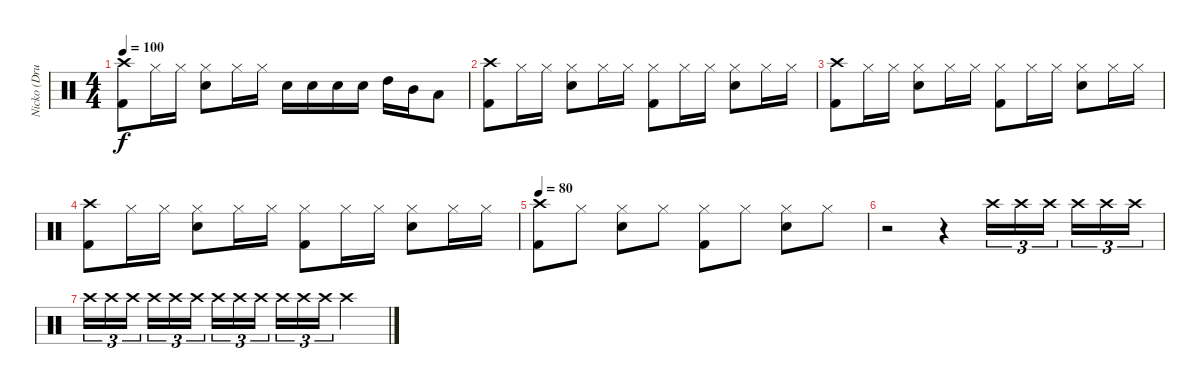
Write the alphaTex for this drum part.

\track ("Nicko (Drums)" "Nicko (Dru") {instrument percussion}
\staff {score}
\articulation defaults
\ts (4 4)
\tempo 100
\clef neutral
\ks c
("Crash high (hit)" "Kick (hit) 2").8{dy f} "Hi-Hat (closed)".16 "Hi-Hat (closed)".16 ("Hi-Hat (closed)" "Snare (hit) 2").8 "Hi-Hat (closed)".16 "Hi-Hat (closed)".16 "Snare (hit) 2".16 "Snare (hit) 2".16 "Snare (hit) 2".16 "Snare (hit) 2".16 "High Tom (hit)".16 "Mid Tom (hit)".16 "Low Tom (hit)".8 |
("Crash high (hit)" "Kick (hit) 2").8 "Hi-Hat (closed)".16 "Hi-Hat (closed)".16 ("Hi-Hat (closed)" "Snare (hit) 2").8 "Hi-Hat (closed)".16 "Hi-Hat (closed)".16 ("Hi-Hat (closed)" "Kick (hit) 2").8 "Hi-Hat (closed)".16 "Hi-Hat (closed)".16 ("Hi-Hat (closed)" "Snare (hit) 2").8 "Hi-Hat (closed)".16 "Hi-Hat (closed)".16 |
("Crash high (hit)" "Kick (hit) 2").8 "Hi-Hat (closed)".16 "Hi-Hat (closed)".16 ("Hi-Hat (closed)" "Snare (hit) 2").8 "Hi-Hat (closed)".16 "Hi-Hat (closed)".16 ("Hi-Hat (closed)" "Kick (hit) 2").8 "Hi-Hat (closed)".16 "Hi-Hat (closed)".16 ("Hi-Hat (closed)" "Snare (hit) 2").8 "Hi-Hat (closed)".16 "Hi-Hat (closed)".16 |
("Crash high (hit)" "Kick (hit) 2").8 "Hi-Hat (closed)".16 "Hi-Hat (closed)".16 ("Hi-Hat (closed)" "Snare (hit) 2").8 "Hi-Hat (closed)".16 "Hi-Hat (closed)".16 ("Hi-Hat (closed)" "Kick (hit) 2").8 "Hi-Hat (closed)".16 "Hi-Hat (closed)".16 ("Hi-Hat (closed)" "Snare (hit) 2").8 "Hi-Hat (closed)".16 "Hi-Hat (closed)".16 |
\tempo 80
("Crash high (hit)" "Kick (hit) 2").8 "Hi-Hat (closed)".8 ("Hi-Hat (closed)" "Snare (hit) 2").8 "Hi-Hat (closed)".8 ("Hi-Hat (closed)" "Kick (hit) 2").8 "Hi-Hat (closed)".8 ("Hi-Hat (closed)" "Snare (hit) 2").8 "Hi-Hat (closed)".8 |
r.2 r.4 "Crash high (hit)".16{tu (3 2)} "Crash high (hit)".16{tu (3 2)} "Crash high (hit)".16{tu (3 2)} "Crash high (hit)".16{tu (3 2)} "Crash high (hit)".16{tu (3 2)} "Crash high (hit)".16{tu (3 2)} |
"Crash high (hit)".16{tu (3 2)} "Crash high (hit)".16{tu (3 2)} "Crash high (hit)".16{tu (3 2)} "Crash high (hit)".16{tu (3 2)} "Crash high (hit)".16{tu (3 2)} "Crash high (hit)".16{tu (3 2)} "Crash high (hit)".16{tu (3 2)} "Crash high (hit)".16{tu (3 2)} "Crash high (hit)".16{tu (3 2)} "Crash high (hit)".16{tu (3 2)} "Crash high (hit)".16{tu (3 2)} "Crash high (hit)".16{tu (3 2)} "Crash high (hit)".2
